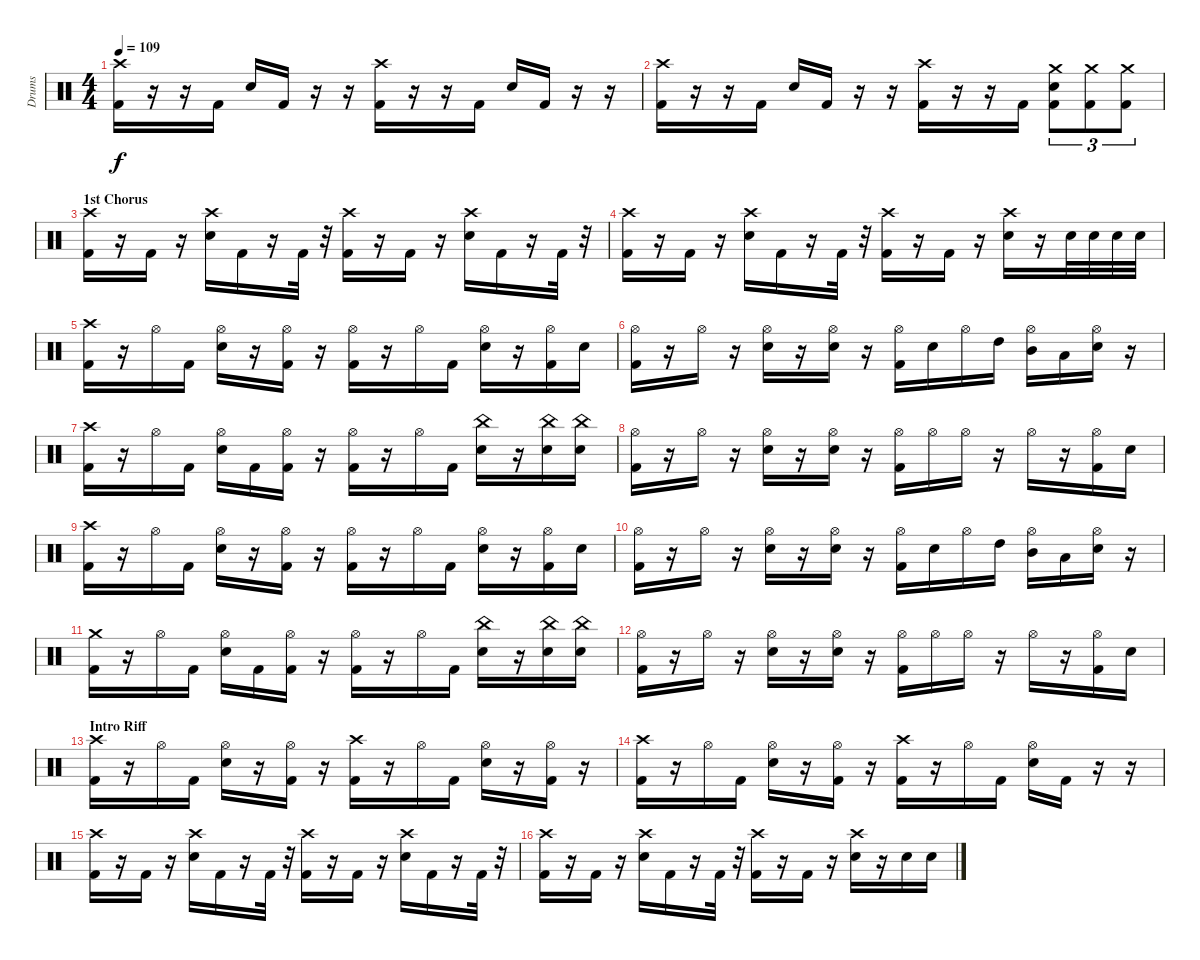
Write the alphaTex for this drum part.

\track ("Drums" "Drums") {instrument percussion}
\staff {score}
\articulation defaults
\ts (4 4)
\tempo 109
\clef neutral
\ks c
("Crash high (hit)" "Kick (hit) 2").16{dy f} r.16 r.16 "Kick (hit) 2".16 "Snare (hit) 2"{tr (38 32)}.16 "Kick (hit) 2".16 r.16 r.16 ("Crash high (hit)" "Kick (hit) 2").16 r.16 r.16 "Kick (hit) 2".16 "Snare (hit) 2"{tr (38 32)}.16 "Kick (hit) 2".16 r.16 r.16 |
("Crash high (hit)" "Kick (hit) 2").16 r.16 r.16 "Kick (hit) 2".16 "Snare (hit) 2"{tr (38 32)}.16 "Kick (hit) 2".16 r.16 r.16 ("Crash high (hit)" "Kick (hit) 2").16 r.16 r.16 "Kick (hit) 2".16 ("Crash medium (hit)" "Snare (hit) 2" "Kick (hit) 2").8{tu (3 2)} ("Crash medium (hit)" "Kick (hit) 2").8{tu (3 2)} ("Crash medium (hit)" "Kick (hit) 2").8{tu (3 2)} |
\section ("" "1st Chorus")
("Crash high (hit)" "Kick (hit) 2").16 r.16 "Kick (hit) 2".16 r.16 ("Crash high (hit)" "Snare (hit) 2").16 "Kick (hit) 2".16 r.16 "Kick (hit) 2".32 r.32 ("Crash high (hit)" "Kick (hit) 2").16 r.16 "Kick (hit) 2".16 r.16 ("Crash high (hit)" "Snare (hit) 2").16 "Kick (hit) 2".16 r.16 "Kick (hit) 2".32 r.32 |
("Crash high (hit)" "Kick (hit) 2").16 r.16 "Kick (hit) 2".16 r.16 ("Crash high (hit)" "Snare (hit) 2").16 "Kick (hit) 2".16 r.16 "Kick (hit) 2".32 r.32 ("Crash high (hit)" "Kick (hit) 2").16 r.16 "Kick (hit) 2".16 r.16 ("Crash high (hit)" "Snare (hit) 2").16 r.16 "Snare (hit) 2".32 "Snare (hit) 2".32 "Snare (hit) 2".32 "Snare (hit) 2".32 |
("Crash high (hit)" "Kick (hit) 2").16 r.16 "Hi-Hat (open)".16 "Kick (hit) 2".16 ("Hi-Hat (open)" "Snare (hit) 2").16 r.16 ("Hi-Hat (open)" "Kick (hit) 2").16 r.16 ("Hi-Hat (open)" "Kick (hit) 2").16 r.16 "Hi-Hat (open)".16 "Kick (hit) 2".16 ("Hi-Hat (open)" "Snare (hit) 2").16 r.16 ("Hi-Hat (open)" "Kick (hit) 2").16 "Snare (hit) 2".16 |
("Hi-Hat (open)" "Kick (hit) 2").16 r.16 "Hi-Hat (open)".16 r.16 ("Hi-Hat (open)" "Snare (hit) 2").16 r.16 ("Hi-Hat (open)" "Snare (hit) 2").16 r.16 ("Hi-Hat (open)" "Kick (hit) 2").16 "Snare (hit) 2".16 "Hi-Hat (open)".16 "High Tom (hit)".16 ("Hi-Hat (open)" "Mid Tom (hit)").16 "Low Tom (hit)".16 ("Hi-Hat (open)" "Snare (hit) 2").16 r.16 |
("Crash high (hit)" "Kick (hit) 2").16 r.16 "Hi-Hat (open)".16 "Kick (hit) 2".16 ("Hi-Hat (open)" "Snare (hit) 2").16 "Kick (hit) 2".16 ("Hi-Hat (open)" "Kick (hit) 2").16 r.16 ("Hi-Hat (open)" "Kick (hit) 2").16 r.16 "Hi-Hat (open)".16 "Kick (hit) 2".16 ("China (hit)" "Snare (hit) 2").16 r.16 ("China (hit)" "Snare (hit) 2").16 ("China (hit)" "Snare (hit) 2").16 |
("Hi-Hat (open)" "Kick (hit) 2").16 r.16 "Hi-Hat (open)".16 r.16 ("Hi-Hat (open)" "Snare (hit) 2").16 r.16 ("Hi-Hat (open)" "Snare (hit) 2").16 r.16 ("Hi-Hat (open)" "Kick (hit) 2").16 "Hi-Hat (open)".16 "Hi-Hat (open)".16 r.16 "Hi-Hat (open)".16 r.16 ("Hi-Hat (open)" "Kick (hit) 2").16 "Snare (hit) 2".16 |
("Crash high (hit)" "Kick (hit) 2").16 r.16 "Hi-Hat (open)".16 "Kick (hit) 2".16 ("Hi-Hat (open)" "Snare (hit) 2").16 r.16 ("Hi-Hat (open)" "Kick (hit) 2").16 r.16 ("Hi-Hat (open)" "Kick (hit) 2").16 r.16 "Hi-Hat (open)".16 "Kick (hit) 2".16 ("Hi-Hat (open)" "Snare (hit) 2").16 r.16 ("Hi-Hat (open)" "Kick (hit) 2").16 "Snare (hit) 2".16 |
("Hi-Hat (open)" "Kick (hit) 2").16 r.16 "Hi-Hat (open)".16 r.16 ("Hi-Hat (open)" "Snare (hit) 2").16 r.16 ("Hi-Hat (open)" "Snare (hit) 2").16 r.16 ("Hi-Hat (open)" "Kick (hit) 2").16 "Snare (hit) 2".16 "Hi-Hat (open)".16 "High Tom (hit)".16 ("Hi-Hat (open)" "Mid Tom (hit)").16 "Low Tom (hit)".16 ("Hi-Hat (open)" "Snare (hit) 2").16 r.16 |
("Crash medium (hit)" "Kick (hit) 2").16 r.16 "Hi-Hat (open)".16 "Kick (hit) 2".16 ("Hi-Hat (open)" "Snare (hit) 2").16 "Kick (hit) 2".16 ("Hi-Hat (open)" "Kick (hit) 2").16 r.16 ("Hi-Hat (open)" "Kick (hit) 2").16 r.16 "Hi-Hat (open)".16 "Kick (hit) 2".16 ("China (hit)" "Snare (hit) 2").16 r.16 ("China (hit)" "Snare (hit) 2").16 ("China (hit)" "Snare (hit) 2").16 |
("Hi-Hat (open)" "Kick (hit) 2").16 r.16 "Hi-Hat (open)".16 r.16 ("Hi-Hat (open)" "Snare (hit) 2").16 r.16 ("Hi-Hat (open)" "Snare (hit) 2").16 r.16 ("Hi-Hat (open)" "Kick (hit) 2").16 "Hi-Hat (open)".16 "Hi-Hat (open)".16 r.16 "Hi-Hat (open)".16 r.16 ("Hi-Hat (open)" "Kick (hit) 2").16 "Snare (hit) 2".16 |
\section ("" "Intro Riff")
("Crash high (hit)" "Kick (hit) 2").16 r.16 "Hi-Hat (open)".16 "Kick (hit) 2".16 ("Hi-Hat (open)" "Snare (hit) 2").16 r.16 ("Hi-Hat (open)" "Kick (hit) 2").16 r.16 ("Crash high (hit)" "Kick (hit) 2").16 r.16 "Hi-Hat (open)".16 "Kick (hit) 2".16 ("Hi-Hat (open)" "Snare (hit) 2").16 r.16 ("Hi-Hat (open)" "Kick (hit) 2").16 r.16 |
("Crash high (hit)" "Kick (hit) 2").16 r.16 "Hi-Hat (open)".16 "Kick (hit) 2".16 ("Hi-Hat (open)" "Snare (hit) 2").16 r.16 ("Hi-Hat (open)" "Kick (hit) 2").16 r.16 ("Crash high (hit)" "Kick (hit) 2").16 r.16 "Hi-Hat (open)".16 "Kick (hit) 2".16 ("Hi-Hat (open)" "Snare (hit) 2").16 "Kick (hit) 2".16 r.16 r.16 |
("Crash high (hit)" "Kick (hit) 2").16 r.16 "Kick (hit) 2".16 r.16 ("Crash high (hit)" "Snare (hit) 2").16 "Kick (hit) 2".16 r.16 "Kick (hit) 2".32 r.32 ("Crash high (hit)" "Kick (hit) 2").16 r.16 "Kick (hit) 2".16 r.16 ("Crash high (hit)" "Snare (hit) 2").16 "Kick (hit) 2".16 r.16 "Kick (hit) 2".32 r.32 |
("Crash high (hit)" "Kick (hit) 2").16 r.16 "Kick (hit) 2".16 r.16 ("Crash high (hit)" "Snare (hit) 2").16 "Kick (hit) 2".16 r.16 "Kick (hit) 2".32 r.32 ("Crash high (hit)" "Kick (hit) 2").16 r.16 "Kick (hit) 2".16 r.16 ("Crash high (hit)" "Snare (hit) 2").16 r.16 "Snare (hit) 2".16 "Snare (hit) 2".16
